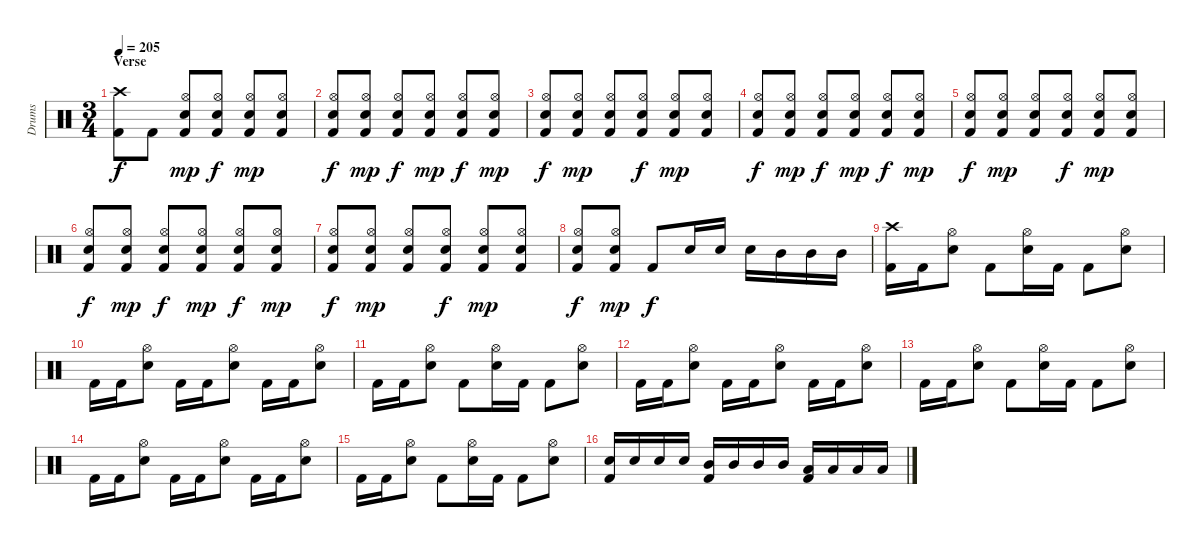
\track ("Drums" "Drums") {instrument percussion}
\staff {score}
\articulation defaults
\ts (3 4)
\section ("" "Verse")
\tempo 205
\clef neutral
\ks c
("Crash high (hit)" "Kick (hit) 2").8{dy f} "Kick (hit) 2".8 ("Hi-Hat (open)" "Snare (hit) 2" "Kick (hit) 2").8{dy mp} ("Hi-Hat (open)" "Snare (hit) 2" "Kick (hit) 2").8{dy f} ("Hi-Hat (open)" "Snare (hit) 2" "Kick (hit) 2").8{dy mp} ("Hi-Hat (open)" "Snare (hit) 2" "Kick (hit) 2").8 |
("Hi-Hat (open)" "Snare (hit) 2" "Kick (hit) 2").8{dy f} ("Hi-Hat (open)" "Snare (hit) 2" "Kick (hit) 2").8{dy mp} ("Hi-Hat (open)" "Snare (hit) 2" "Kick (hit) 2").8{dy f} ("Hi-Hat (open)" "Snare (hit) 2" "Kick (hit) 2").8{dy mp} ("Hi-Hat (open)" "Snare (hit) 2" "Kick (hit) 2").8{dy f} ("Hi-Hat (open)" "Snare (hit) 2" "Kick (hit) 2").8{dy mp} |
("Hi-Hat (open)" "Snare (hit) 2" "Kick (hit) 2").8{dy f} ("Hi-Hat (open)" "Snare (hit) 2" "Kick (hit) 2").8{dy mp} ("Hi-Hat (open)" "Snare (hit) 2" "Kick (hit) 2").8 ("Hi-Hat (open)" "Snare (hit) 2" "Kick (hit) 2").8{dy f} ("Hi-Hat (open)" "Snare (hit) 2" "Kick (hit) 2").8{dy mp} ("Hi-Hat (open)" "Snare (hit) 2" "Kick (hit) 2").8 |
("Hi-Hat (open)" "Snare (hit) 2" "Kick (hit) 2").8{dy f} ("Hi-Hat (open)" "Snare (hit) 2" "Kick (hit) 2").8{dy mp} ("Hi-Hat (open)" "Snare (hit) 2" "Kick (hit) 2").8{dy f} ("Hi-Hat (open)" "Snare (hit) 2" "Kick (hit) 2").8{dy mp} ("Hi-Hat (open)" "Snare (hit) 2" "Kick (hit) 2").8{dy f} ("Hi-Hat (open)" "Snare (hit) 2" "Kick (hit) 2").8{dy mp} |
("Hi-Hat (open)" "Snare (hit) 2" "Kick (hit) 2").8{dy f} ("Hi-Hat (open)" "Snare (hit) 2" "Kick (hit) 2").8{dy mp} ("Hi-Hat (open)" "Snare (hit) 2" "Kick (hit) 2").8 ("Hi-Hat (open)" "Snare (hit) 2" "Kick (hit) 2").8{dy f} ("Hi-Hat (open)" "Snare (hit) 2" "Kick (hit) 2").8{dy mp} ("Hi-Hat (open)" "Snare (hit) 2" "Kick (hit) 2").8 |
("Hi-Hat (open)" "Snare (hit) 2" "Kick (hit) 2").8{dy f} ("Hi-Hat (open)" "Snare (hit) 2" "Kick (hit) 2").8{dy mp} ("Hi-Hat (open)" "Snare (hit) 2" "Kick (hit) 2").8{dy f} ("Hi-Hat (open)" "Snare (hit) 2" "Kick (hit) 2").8{dy mp} ("Hi-Hat (open)" "Snare (hit) 2" "Kick (hit) 2").8{dy f} ("Hi-Hat (open)" "Snare (hit) 2" "Kick (hit) 2").8{dy mp} |
("Hi-Hat (open)" "Snare (hit) 2" "Kick (hit) 2").8{dy f} ("Hi-Hat (open)" "Snare (hit) 2" "Kick (hit) 2").8{dy mp} ("Hi-Hat (open)" "Snare (hit) 2" "Kick (hit) 2").8 ("Hi-Hat (open)" "Snare (hit) 2" "Kick (hit) 2").8{dy f} ("Hi-Hat (open)" "Snare (hit) 2" "Kick (hit) 2").8{dy mp} ("Hi-Hat (open)" "Snare (hit) 2" "Kick (hit) 2").8 |
("Hi-Hat (open)" "Snare (hit) 2" "Kick (hit) 2").8{dy f} ("Hi-Hat (open)" "Snare (hit) 2" "Kick (hit) 2").8{dy mp} "Kick (hit) 2".8{dy f} "Snare (hit) 2".16 "Snare (hit) 2".16 "Snare (hit) 2".16 "Mid Tom (hit)".16 "Mid Tom (hit)".16 "Mid Tom (hit)".16 |
("Crash high (hit)" "Kick (hit) 2").16 "Kick (hit) 2".16 ("Hi-Hat (open)" "Snare (hit) 2").8 "Kick (hit) 2".8 ("Hi-Hat (open)" "Snare (hit) 2").16 "Kick (hit) 2".16 "Kick (hit) 2".8 ("Hi-Hat (open)" "Snare (hit) 2").8 |
"Kick (hit) 2".16 "Kick (hit) 2".16 ("Hi-Hat (open)" "Snare (hit) 2").8 "Kick (hit) 2".16 "Kick (hit) 2".16 ("Hi-Hat (open)" "Snare (hit) 2").8 "Kick (hit) 2".16 "Kick (hit) 2".16 ("Hi-Hat (open)" "Snare (hit) 2").8 |
"Kick (hit) 2".16 "Kick (hit) 2".16 ("Hi-Hat (open)" "Snare (hit) 2").8 "Kick (hit) 2".8 ("Hi-Hat (open)" "Snare (hit) 2").16 "Kick (hit) 2".16 "Kick (hit) 2".8 ("Hi-Hat (open)" "Snare (hit) 2").8 |
"Kick (hit) 2".16 "Kick (hit) 2".16 ("Hi-Hat (open)" "Snare (hit) 2").8 "Kick (hit) 2".16 "Kick (hit) 2".16 ("Hi-Hat (open)" "Snare (hit) 2").8 "Kick (hit) 2".16 "Kick (hit) 2".16 ("Hi-Hat (open)" "Snare (hit) 2").8 |
"Kick (hit) 2".16 "Kick (hit) 2".16 ("Hi-Hat (open)" "Snare (hit) 2").8 "Kick (hit) 2".8 ("Hi-Hat (open)" "Snare (hit) 2").16 "Kick (hit) 2".16 "Kick (hit) 2".8 ("Hi-Hat (open)" "Snare (hit) 2").8 |
"Kick (hit) 2".16 "Kick (hit) 2".16 ("Hi-Hat (open)" "Snare (hit) 2").8 "Kick (hit) 2".16 "Kick (hit) 2".16 ("Hi-Hat (open)" "Snare (hit) 2").8 "Kick (hit) 2".16 "Kick (hit) 2".16 ("Hi-Hat (open)" "Snare (hit) 2").8 |
"Kick (hit) 2".16 "Kick (hit) 2".16 ("Hi-Hat (open)" "Snare (hit) 2").8 "Kick (hit) 2".8 ("Hi-Hat (open)" "Snare (hit) 2").16 "Kick (hit) 2".16 "Kick (hit) 2".8 ("Hi-Hat (open)" "Snare (hit) 2").8 |
("Snare (hit) 2" "Kick (hit) 2").16 "Snare (hit) 2".16 "Snare (hit) 2".16 "Snare (hit) 2".16 ("Mid Tom (hit)" "Kick (hit) 2").16 "Mid Tom (hit)".16 "Mid Tom (hit)".16 "Mid Tom (hit)".16 ("Low Tom (hit)" "Kick (hit) 2").16 "Low Tom (hit)".16 "Low Tom (hit)".16 "Low Tom (hit)".16
